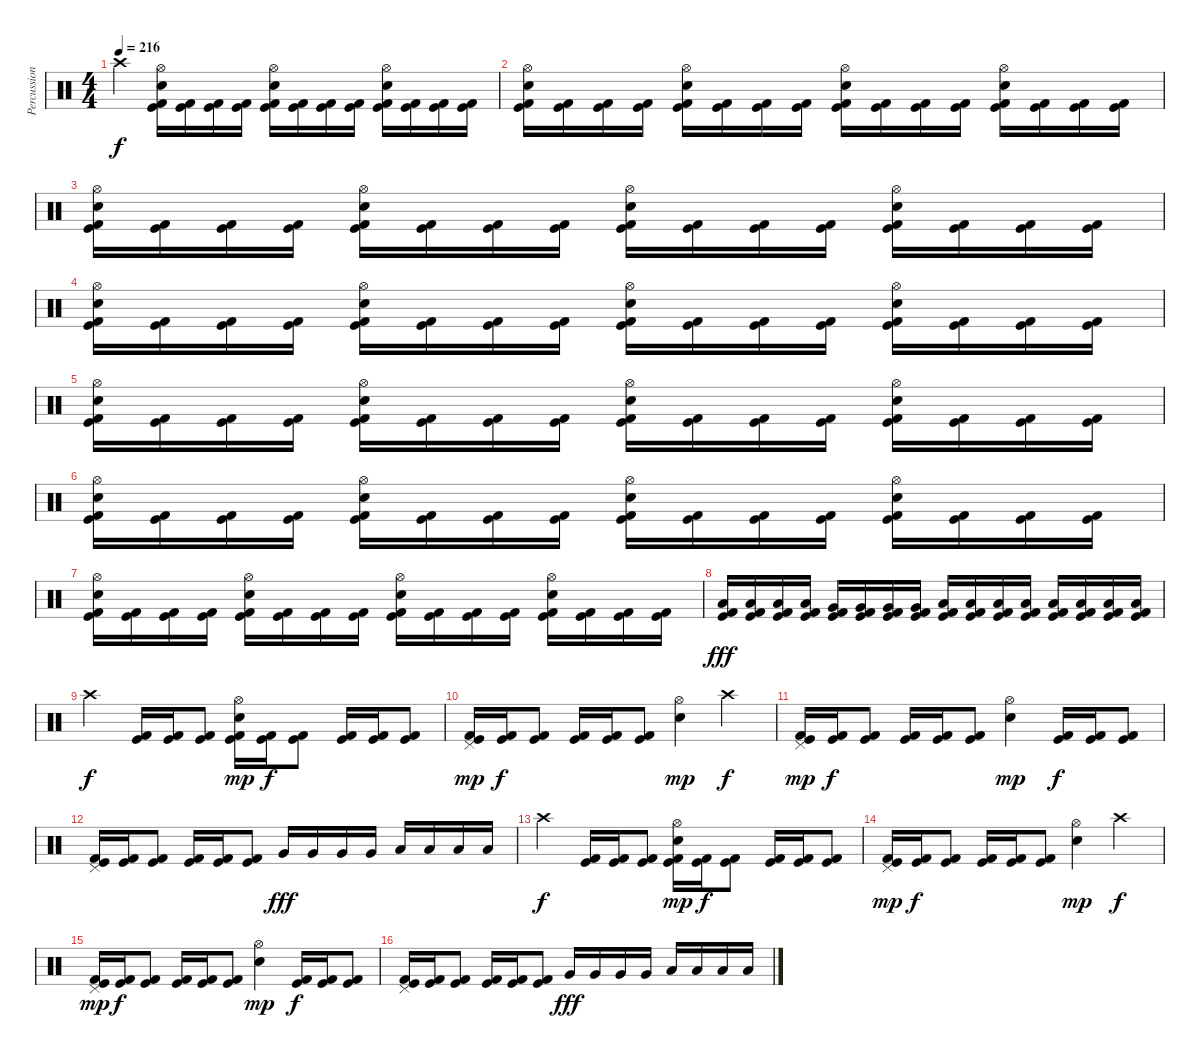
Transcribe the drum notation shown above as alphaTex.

\track ("Percussions" "Percussion") {instrument percussion}
\staff {score}
\articulation defaults
\ts (4 4)
\tempo 216
\clef neutral
\ks c "Crash high (hit)".4{dy f}
("Hi-Hat (open)" "Electric Snare (hit)" "Kick (hit)" "Kick (hit) 2").16 ("Kick (hit)" "Kick (hit) 2").16 ("Kick (hit)" "Kick (hit) 2").16 ("Kick (hit)" "Kick (hit) 2").16 ("Hi-Hat (open)" "Electric Snare (hit)" "Kick (hit)" "Kick (hit) 2").16 ("Kick (hit)" "Kick (hit) 2").16 ("Kick (hit)" "Kick (hit) 2").16 ("Kick (hit)" "Kick (hit) 2").16 ("Hi-Hat (open)" "Electric Snare (hit)" "Kick (hit)" "Kick (hit) 2").16 ("Kick (hit)" "Kick (hit) 2").16 ("Kick (hit)" "Kick (hit) 2").16 ("Kick (hit)" "Kick (hit) 2").16 |
("Hi-Hat (open)" "Electric Snare (hit)" "Kick (hit)" "Kick (hit) 2").16 ("Kick (hit)" "Kick (hit) 2").16 ("Kick (hit)" "Kick (hit) 2").16 ("Kick (hit)" "Kick (hit) 2").16 ("Hi-Hat (open)" "Electric Snare (hit)" "Kick (hit)" "Kick (hit) 2").16 ("Kick (hit)" "Kick (hit) 2").16 ("Kick (hit)" "Kick (hit) 2").16 ("Kick (hit)" "Kick (hit) 2").16 ("Hi-Hat (open)" "Electric Snare (hit)" "Kick (hit)" "Kick (hit) 2").16 ("Kick (hit)" "Kick (hit) 2").16 ("Kick (hit)" "Kick (hit) 2").16 ("Kick (hit)" "Kick (hit) 2").16 ("Hi-Hat (open)" "Electric Snare (hit)" "Kick (hit)" "Kick (hit) 2").16 ("Kick (hit)" "Kick (hit) 2").16 ("Kick (hit)" "Kick (hit) 2").16 ("Kick (hit)" "Kick (hit) 2").16 |
("Hi-Hat (open)" "Electric Snare (hit)" "Kick (hit)" "Kick (hit) 2").16 ("Kick (hit)" "Kick (hit) 2").16 ("Kick (hit)" "Kick (hit) 2").16 ("Kick (hit)" "Kick (hit) 2").16 ("Hi-Hat (open)" "Electric Snare (hit)" "Kick (hit)" "Kick (hit) 2").16 ("Kick (hit)" "Kick (hit) 2").16 ("Kick (hit)" "Kick (hit) 2").16 ("Kick (hit)" "Kick (hit) 2").16 ("Hi-Hat (open)" "Electric Snare (hit)" "Kick (hit)" "Kick (hit) 2").16 ("Kick (hit)" "Kick (hit) 2").16 ("Kick (hit)" "Kick (hit) 2").16 ("Kick (hit)" "Kick (hit) 2").16 ("Hi-Hat (open)" "Electric Snare (hit)" "Kick (hit)" "Kick (hit) 2").16 ("Kick (hit)" "Kick (hit) 2").16 ("Kick (hit)" "Kick (hit) 2").16 ("Kick (hit)" "Kick (hit) 2").16 |
("Hi-Hat (open)" "Electric Snare (hit)" "Kick (hit)" "Kick (hit) 2").16 ("Kick (hit)" "Kick (hit) 2").16 ("Kick (hit)" "Kick (hit) 2").16 ("Kick (hit)" "Kick (hit) 2").16 ("Hi-Hat (open)" "Electric Snare (hit)" "Kick (hit)" "Kick (hit) 2").16 ("Kick (hit)" "Kick (hit) 2").16 ("Kick (hit)" "Kick (hit) 2").16 ("Kick (hit)" "Kick (hit) 2").16 ("Hi-Hat (open)" "Electric Snare (hit)" "Kick (hit)" "Kick (hit) 2").16 ("Kick (hit)" "Kick (hit) 2").16 ("Kick (hit)" "Kick (hit) 2").16 ("Kick (hit)" "Kick (hit) 2").16 ("Hi-Hat (open)" "Electric Snare (hit)" "Kick (hit)" "Kick (hit) 2").16 ("Kick (hit)" "Kick (hit) 2").16 ("Kick (hit)" "Kick (hit) 2").16 ("Kick (hit)" "Kick (hit) 2").16 |
("Hi-Hat (open)" "Electric Snare (hit)" "Kick (hit)" "Kick (hit) 2").16 ("Kick (hit)" "Kick (hit) 2").16 ("Kick (hit)" "Kick (hit) 2").16 ("Kick (hit)" "Kick (hit) 2").16 ("Hi-Hat (open)" "Electric Snare (hit)" "Kick (hit)" "Kick (hit) 2").16 ("Kick (hit)" "Kick (hit) 2").16 ("Kick (hit)" "Kick (hit) 2").16 ("Kick (hit)" "Kick (hit) 2").16 ("Hi-Hat (open)" "Electric Snare (hit)" "Kick (hit)" "Kick (hit) 2").16 ("Kick (hit)" "Kick (hit) 2").16 ("Kick (hit)" "Kick (hit) 2").16 ("Kick (hit)" "Kick (hit) 2").16 ("Hi-Hat (open)" "Electric Snare (hit)" "Kick (hit)" "Kick (hit) 2").16 ("Kick (hit)" "Kick (hit) 2").16 ("Kick (hit)" "Kick (hit) 2").16 ("Kick (hit)" "Kick (hit) 2").16 |
("Hi-Hat (open)" "Electric Snare (hit)" "Kick (hit)" "Kick (hit) 2").16 ("Kick (hit)" "Kick (hit) 2").16 ("Kick (hit)" "Kick (hit) 2").16 ("Kick (hit)" "Kick (hit) 2").16 ("Hi-Hat (open)" "Electric Snare (hit)" "Kick (hit)" "Kick (hit) 2").16 ("Kick (hit)" "Kick (hit) 2").16 ("Kick (hit)" "Kick (hit) 2").16 ("Kick (hit)" "Kick (hit) 2").16 ("Hi-Hat (open)" "Electric Snare (hit)" "Kick (hit)" "Kick (hit) 2").16 ("Kick (hit)" "Kick (hit) 2").16 ("Kick (hit)" "Kick (hit) 2").16 ("Kick (hit)" "Kick (hit) 2").16 ("Hi-Hat (open)" "Electric Snare (hit)" "Kick (hit)" "Kick (hit) 2").16 ("Kick (hit)" "Kick (hit) 2").16 ("Kick (hit)" "Kick (hit) 2").16 ("Kick (hit)" "Kick (hit) 2").16 |
("Hi-Hat (open)" "Electric Snare (hit)" "Kick (hit)" "Kick (hit) 2").16 ("Kick (hit)" "Kick (hit) 2").16 ("Kick (hit)" "Kick (hit) 2").16 ("Kick (hit)" "Kick (hit) 2").16 ("Hi-Hat (open)" "Electric Snare (hit)" "Kick (hit)" "Kick (hit) 2").16 ("Kick (hit)" "Kick (hit) 2").16 ("Kick (hit)" "Kick (hit) 2").16 ("Kick (hit)" "Kick (hit) 2").16 ("Hi-Hat (open)" "Electric Snare (hit)" "Kick (hit)" "Kick (hit) 2").16 ("Kick (hit)" "Kick (hit) 2").16 ("Kick (hit)" "Kick (hit) 2").16 ("Kick (hit)" "Kick (hit) 2").16 ("Hi-Hat (open)" "Electric Snare (hit)" "Kick (hit)" "Kick (hit) 2").16 ("Kick (hit)" "Kick (hit) 2").16 ("Kick (hit)" "Kick (hit) 2").16 ("Kick (hit)" "Kick (hit) 2").16 |
("Low Tom (hit)" "Kick (hit)" "Kick (hit) 2").16{dy fff} ("Low Tom (hit)" "Kick (hit)" "Kick (hit) 2").16 ("Low Tom (hit)" "Kick (hit)" "Kick (hit) 2").16 ("Low Tom (hit)" "Kick (hit)" "Kick (hit) 2").16 ("Very Low Tom (hit)" "Kick (hit)" "Kick (hit) 2").16 ("Very Low Tom (hit)" "Kick (hit)" "Kick (hit) 2").16 ("Very Low Tom (hit)" "Kick (hit)" "Kick (hit) 2").16 ("Very Low Tom (hit)" "Kick (hit)" "Kick (hit) 2").16 ("Low Tom (hit)" "Kick (hit)" "Kick (hit) 2").16 ("Low Tom (hit)" "Kick (hit)" "Kick (hit) 2").16 ("Low Tom (hit)" "Kick (hit)" "Kick (hit) 2").16 ("Low Tom (hit)" "Kick (hit)" "Kick (hit) 2").16 ("Low Floor Tom (hit)" "Kick (hit)" "Kick (hit) 2").16 ("Low Floor Tom (hit)" "Kick (hit)" "Kick (hit) 2").16 ("Low Floor Tom (hit)" "Kick (hit)" "Kick (hit) 2").16 ("Low Floor Tom (hit)" "Kick (hit)" "Kick (hit) 2").16 |
"Crash high (hit)".4{dy f} ("Kick (hit)" "Kick (hit) 2").16 ("Kick (hit)" "Kick (hit) 2").16 ("Kick (hit)" "Kick (hit) 2").8 ("Hi-Hat (open)" "Electric Snare (hit)" "Kick (hit)" "Kick (hit) 2").16{dy mp} ("Kick (hit)" "Kick (hit) 2").16{dy f} ("Kick (hit)" "Kick (hit) 2").8 ("Kick (hit)" "Kick (hit) 2").16 ("Kick (hit)" "Kick (hit) 2").16 ("Kick (hit)" "Kick (hit) 2").8 |
("Pedal Hi-Hat (hit)" "Kick (hit)" "Kick (hit) 2").16{dy mp} ("Kick (hit)" "Kick (hit) 2").16{dy f} ("Kick (hit)" "Kick (hit) 2").8 ("Kick (hit)" "Kick (hit) 2").16 ("Kick (hit)" "Kick (hit) 2").16 ("Kick (hit)" "Kick (hit) 2").8 ("Hi-Hat (open)" "Electric Snare (hit)").4{dy mp} "Crash high (hit)".4{dy f} |
("Pedal Hi-Hat (hit)" "Kick (hit)" "Kick (hit) 2").16{dy mp} ("Kick (hit)" "Kick (hit) 2").16{dy f} ("Kick (hit)" "Kick (hit) 2").8 ("Kick (hit)" "Kick (hit) 2").16 ("Kick (hit)" "Kick (hit) 2").16 ("Kick (hit)" "Kick (hit) 2").8 ("Hi-Hat (open)" "Electric Snare (hit)").4{dy mp} ("Kick (hit)" "Kick (hit) 2").16{dy f} ("Kick (hit)" "Kick (hit) 2").16 ("Kick (hit)" "Kick (hit) 2").8 |
("Pedal Hi-Hat (hit)" "Kick (hit)" "Kick (hit) 2").16 ("Kick (hit)" "Kick (hit) 2").16 ("Kick (hit)" "Kick (hit) 2").8 ("Kick (hit)" "Kick (hit) 2").16 ("Kick (hit)" "Kick (hit) 2").16 ("Kick (hit)" "Kick (hit) 2").8 "Very Low Tom (hit)".16{dy fff} "Very Low Tom (hit)".16 "Very Low Tom (hit)".16 "Very Low Tom (hit)".16 "Low Floor Tom (hit)".16 "Low Floor Tom (hit)".16 "Low Floor Tom (hit)".16 "Low Floor Tom (hit)".16 |
"Crash high (hit)".4{dy f} ("Kick (hit)" "Kick (hit) 2").16 ("Kick (hit)" "Kick (hit) 2").16 ("Kick (hit)" "Kick (hit) 2").8 ("Hi-Hat (open)" "Electric Snare (hit)" "Kick (hit)" "Kick (hit) 2").16{dy mp} ("Kick (hit)" "Kick (hit) 2").16{dy f} ("Kick (hit)" "Kick (hit) 2").8 ("Kick (hit)" "Kick (hit) 2").16 ("Kick (hit)" "Kick (hit) 2").16 ("Kick (hit)" "Kick (hit) 2").8 |
("Pedal Hi-Hat (hit)" "Kick (hit)" "Kick (hit) 2").16{dy mp} ("Kick (hit)" "Kick (hit) 2").16{dy f} ("Kick (hit)" "Kick (hit) 2").8 ("Kick (hit)" "Kick (hit) 2").16 ("Kick (hit)" "Kick (hit) 2").16 ("Kick (hit)" "Kick (hit) 2").8 ("Hi-Hat (open)" "Electric Snare (hit)").4{dy mp} "Crash high (hit)".4{dy f} |
("Pedal Hi-Hat (hit)" "Kick (hit)" "Kick (hit) 2").16{dy mp} ("Kick (hit)" "Kick (hit) 2").16{dy f} ("Kick (hit)" "Kick (hit) 2").8 ("Kick (hit)" "Kick (hit) 2").16 ("Kick (hit)" "Kick (hit) 2").16 ("Kick (hit)" "Kick (hit) 2").8 ("Hi-Hat (open)" "Electric Snare (hit)").4{dy mp} ("Kick (hit)" "Kick (hit) 2").16{dy f} ("Kick (hit)" "Kick (hit) 2").16 ("Kick (hit)" "Kick (hit) 2").8 |
("Pedal Hi-Hat (hit)" "Kick (hit)" "Kick (hit) 2").16 ("Kick (hit)" "Kick (hit) 2").16 ("Kick (hit)" "Kick (hit) 2").8 ("Kick (hit)" "Kick (hit) 2").16 ("Kick (hit)" "Kick (hit) 2").16 ("Kick (hit)" "Kick (hit) 2").8 "Very Low Tom (hit)".16{dy fff} "Very Low Tom (hit)".16 "Very Low Tom (hit)".16 "Very Low Tom (hit)".16 "Low Floor Tom (hit)".16 "Low Floor Tom (hit)".16 "Low Floor Tom (hit)".16 "Low Floor Tom (hit)".16
